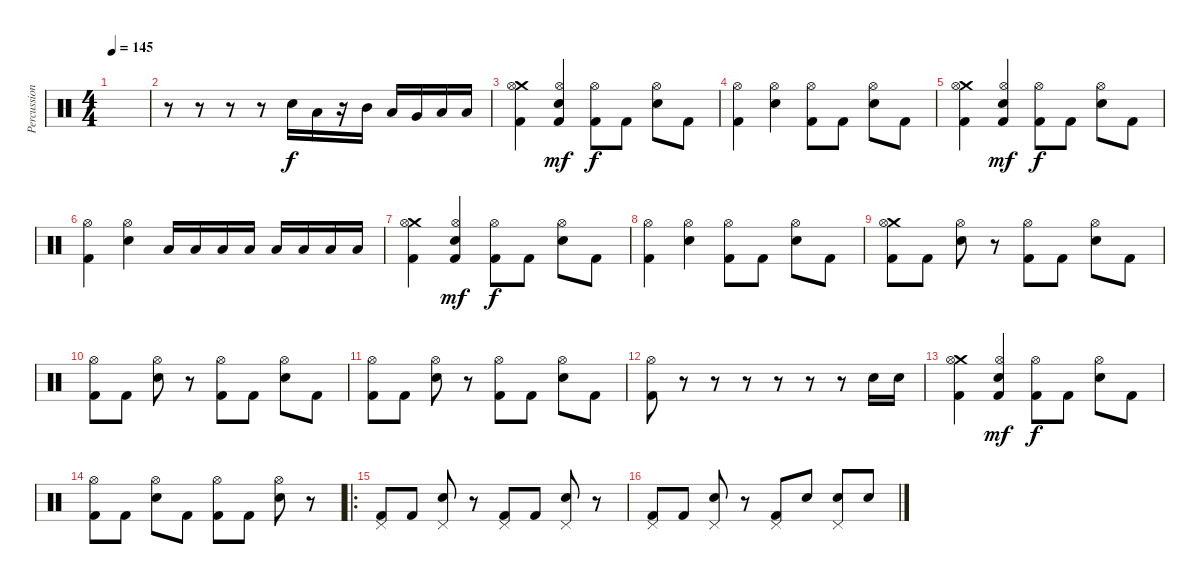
\track ("Percussion" "Percussion") {instrument percussion}
\staff {score}
\articulation defaults
\ts (4 4)
\tempo 145
\clef neutral
\ks c
|
r.8 r.8 r.8 r.8 "Electric Snare (hit)".16 "Low Tom (hit)".16 r.16 "Mid Tom (hit)".16{dy f} "Low Tom (hit)".16 "Very Low Tom (hit)".16 "Low Floor Tom (hit)".16 "Low Floor Tom (hit)".16 |
("Crash medium (hit)" "Hi-Hat (open)" "Kick (hit) 2").4 ("Hi-Hat (open)" "Electric Snare (hit)" "Kick (hit) 2").4{dy mf} ("Hi-Hat (open)" "Kick (hit) 2").8{dy f} "Kick (hit) 2".8 ("Hi-Hat (open)" "Electric Snare (hit)").8 "Kick (hit) 2".8 |
("Hi-Hat (open)" "Kick (hit) 2").4 ("Hi-Hat (open)" "Electric Snare (hit)").4 ("Hi-Hat (open)" "Kick (hit) 2").8 "Kick (hit) 2".8 ("Hi-Hat (open)" "Electric Snare (hit)").8 "Kick (hit) 2".8 |
("Crash medium (hit)" "Hi-Hat (open)" "Kick (hit) 2").4 ("Hi-Hat (open)" "Electric Snare (hit)" "Kick (hit) 2").4{dy mf} ("Hi-Hat (open)" "Kick (hit) 2").8{dy f} "Kick (hit) 2".8 ("Hi-Hat (open)" "Electric Snare (hit)").8 "Kick (hit) 2".8 |
("Hi-Hat (open)" "Kick (hit) 2").4 ("Hi-Hat (open)" "Electric Snare (hit)").4 "Low Tom (hit)".16 "Low Tom (hit)".16 "Low Tom (hit)".16 "Low Tom (hit)".16 "Low Tom (hit)".16 "Low Tom (hit)".16 "Low Tom (hit)".16 "Low Tom (hit)".16 |
("Crash medium (hit)" "Hi-Hat (open)" "Kick (hit) 2").4 ("Hi-Hat (open)" "Electric Snare (hit)" "Kick (hit) 2").4{dy mf} ("Hi-Hat (open)" "Kick (hit) 2").8{dy f} "Kick (hit) 2".8 ("Hi-Hat (open)" "Electric Snare (hit)").8 "Kick (hit) 2".8 |
("Hi-Hat (open)" "Kick (hit) 2").4 ("Hi-Hat (open)" "Electric Snare (hit)").4 ("Hi-Hat (open)" "Kick (hit) 2").8 "Kick (hit) 2".8 ("Hi-Hat (open)" "Electric Snare (hit)").8 "Kick (hit) 2".8 |
("Crash medium (hit)" "Hi-Hat (open)" "Kick (hit) 2").8 "Kick (hit) 2".8 ("Hi-Hat (open)" "Electric Snare (hit)").8 r.8 ("Hi-Hat (open)" "Kick (hit) 2").8 "Kick (hit) 2".8 ("Hi-Hat (open)" "Electric Snare (hit)").8 "Kick (hit) 2".8 |
("Hi-Hat (open)" "Kick (hit) 2").8 "Kick (hit) 2".8 ("Hi-Hat (open)" "Electric Snare (hit)").8 r.8 ("Hi-Hat (open)" "Kick (hit) 2").8 "Kick (hit) 2".8 ("Hi-Hat (open)" "Electric Snare (hit)").8 "Kick (hit) 2".8 |
("Hi-Hat (open)" "Kick (hit) 2").8 "Kick (hit) 2".8 ("Hi-Hat (open)" "Electric Snare (hit)").8 r.8 ("Hi-Hat (open)" "Kick (hit) 2").8 "Kick (hit) 2".8 ("Hi-Hat (open)" "Electric Snare (hit)").8 "Kick (hit) 2".8 |
("Hi-Hat (open)" "Kick (hit) 2").8 r.8 r.8 r.8 r.8 r.8 r.8 "Electric Snare (hit)".16 "Electric Snare (hit)".16 |
("Crash medium (hit)" "Hi-Hat (open)" "Kick (hit) 2").4 ("Hi-Hat (open)" "Electric Snare (hit)" "Kick (hit) 2").4{dy mf} ("Hi-Hat (open)" "Kick (hit) 2").8{dy f} "Kick (hit) 2".8 ("Hi-Hat (open)" "Electric Snare (hit)").8 "Kick (hit) 2".8 |
("Hi-Hat (open)" "Kick (hit) 2").8 "Kick (hit) 2".8 ("Hi-Hat (open)" "Electric Snare (hit)").8 "Kick (hit) 2".8 ("Hi-Hat (open)" "Kick (hit) 2").8 "Kick (hit) 2".8 ("Hi-Hat (open)" "Electric Snare (hit)").8 r.8 |
\ro
("Pedal Hi-Hat (hit)" "Kick (hit) 2").8 "Kick (hit) 2".8 ("Pedal Hi-Hat (hit)" "Electric Snare (hit)").8 r.8 ("Pedal Hi-Hat (hit)" "Kick (hit) 2").8 "Kick (hit) 2".8 ("Pedal Hi-Hat (hit)" "Electric Snare (hit)").8 r.8 |
("Pedal Hi-Hat (hit)" "Kick (hit) 2").8 "Kick (hit) 2".8 ("Pedal Hi-Hat (hit)" "Electric Snare (hit)").8 r.8 ("Pedal Hi-Hat (hit)" "Kick (hit) 2").8 "Electric Snare (hit)".8 ("Pedal Hi-Hat (hit)" "Electric Snare (hit)").8 "Electric Snare (hit)".8
